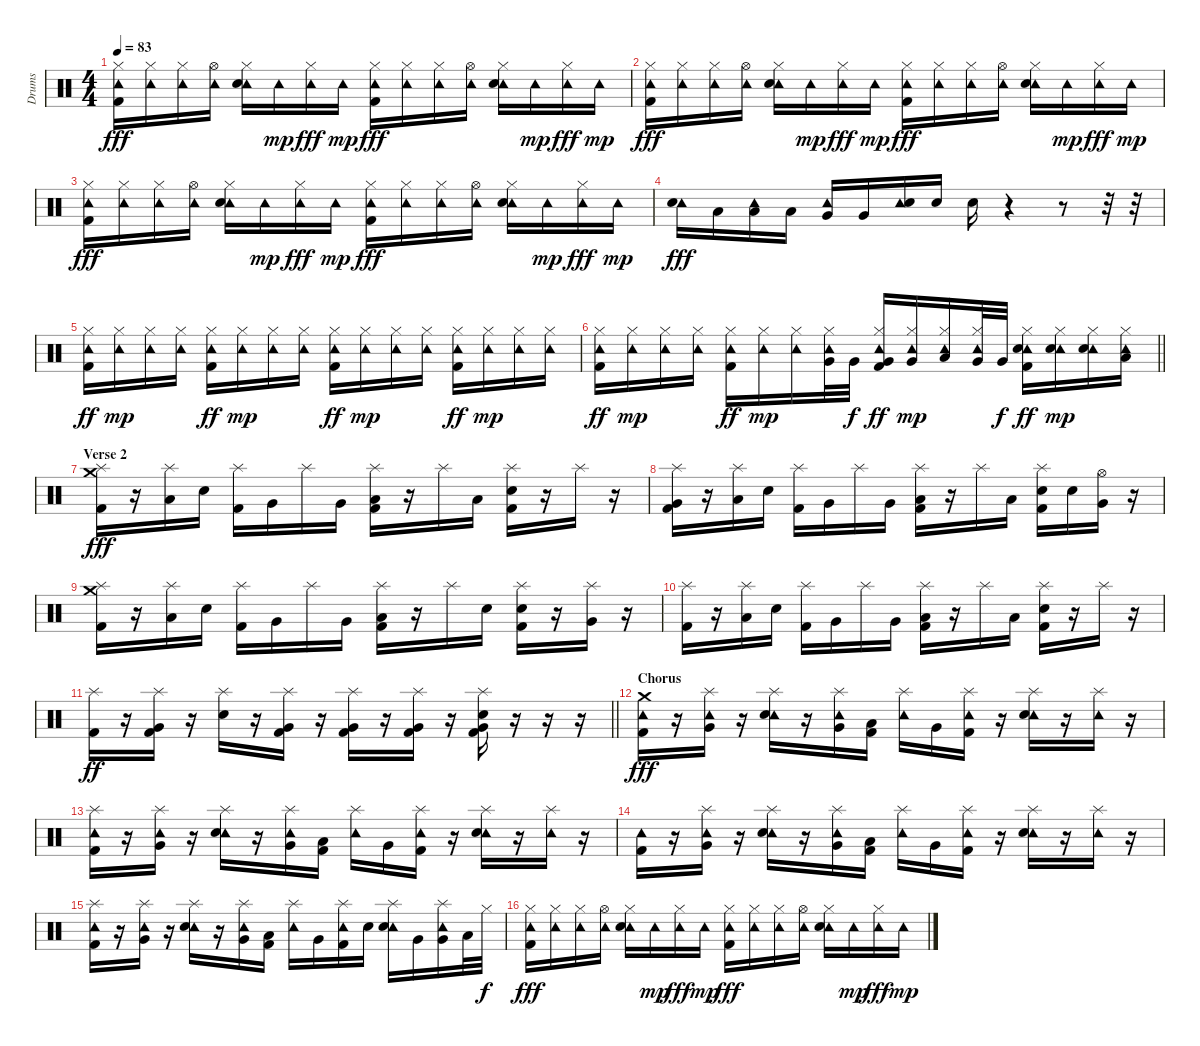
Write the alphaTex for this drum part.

\track ("Drums" "Drums") {instrument percussion}
\staff {score}
\articulation defaults
\ts (4 4)
\tempo 83
\clef neutral
\ks c
("Tambourine (hit)" "Hi-Hat (closed)" "Kick (hit) 2").16{dy fff} ("Tambourine (hit)" "Hi-Hat (closed)").16 ("Tambourine (hit)" "Hi-Hat (closed)").16 ("Tambourine (hit)" "Hi-Hat (open)").16 ("Tambourine (hit)" "Hi-Hat (closed)" "Snare (hit) 2").16 "Tambourine (hit)".16{dy mp} ("Tambourine (hit)" "Hi-Hat (closed)").16{dy fff} "Tambourine (hit)".16{dy mp} ("Tambourine (hit)" "Hi-Hat (closed)" "Kick (hit) 2").16{dy fff} ("Tambourine (hit)" "Hi-Hat (closed)").16 ("Tambourine (hit)" "Hi-Hat (closed)").16 ("Tambourine (hit)" "Hi-Hat (open)").16 ("Tambourine (hit)" "Hi-Hat (closed)" "Snare (hit) 2").16 "Tambourine (hit)".16{dy mp} ("Tambourine (hit)" "Hi-Hat (closed)").16{dy fff} "Tambourine (hit)".16{dy mp} |
("Tambourine (hit)" "Hi-Hat (closed)" "Kick (hit) 2").16{dy fff} ("Tambourine (hit)" "Hi-Hat (closed)").16 ("Tambourine (hit)" "Hi-Hat (closed)").16 ("Tambourine (hit)" "Hi-Hat (open)").16 ("Tambourine (hit)" "Hi-Hat (closed)" "Snare (hit) 2").16 "Tambourine (hit)".16{dy mp} ("Tambourine (hit)" "Hi-Hat (closed)").16{dy fff} "Tambourine (hit)".16{dy mp} ("Tambourine (hit)" "Hi-Hat (closed)" "Kick (hit) 2").16{dy fff} ("Tambourine (hit)" "Hi-Hat (closed)").16 ("Tambourine (hit)" "Hi-Hat (closed)").16 ("Tambourine (hit)" "Hi-Hat (open)").16 ("Tambourine (hit)" "Hi-Hat (closed)" "Snare (hit) 2").16 "Tambourine (hit)".16{dy mp} ("Tambourine (hit)" "Hi-Hat (closed)").16{dy fff} "Tambourine (hit)".16{dy mp} |
("Tambourine (hit)" "Hi-Hat (closed)" "Kick (hit) 2").16{dy fff} ("Tambourine (hit)" "Hi-Hat (closed)").16 ("Tambourine (hit)" "Hi-Hat (closed)").16 ("Tambourine (hit)" "Hi-Hat (open)").16 ("Tambourine (hit)" "Hi-Hat (closed)" "Snare (hit) 2").16 "Tambourine (hit)".16{dy mp} ("Tambourine (hit)" "Hi-Hat (closed)").16{dy fff} "Tambourine (hit)".16{dy mp} ("Tambourine (hit)" "Hi-Hat (closed)" "Kick (hit) 2").16{dy fff} ("Tambourine (hit)" "Hi-Hat (closed)").16 ("Tambourine (hit)" "Hi-Hat (closed)").16 ("Tambourine (hit)" "Hi-Hat (open)").16 ("Tambourine (hit)" "Hi-Hat (closed)" "Snare (hit) 2").16 "Tambourine (hit)".16{dy mp} ("Tambourine (hit)" "Hi-Hat (closed)").16{dy fff} "Tambourine (hit)".16{dy mp} |
("Tambourine (hit)" "Snare (hit) 2").16{dy fff} "Low Floor Tom (hit)".16 ("Tambourine (hit)" "Low Floor Tom (hit)").16 "Low Floor Tom (hit)".16 ("Tambourine (hit)" "Very Low Tom (hit)").16 "Very Low Tom (hit)".16 ("Tambourine (hit)" "Snare (hit) 2").16 "Snare (hit) 2".16 "Snare (hit) 2".16 r.4 r.8 r.32 r.32 |
("Hi-Hat (closed)" "Tambourine (hit)" "Kick (hit) 2").16{dy ff} ("Hi-Hat (closed)" "Tambourine (hit)").16{dy mp} ("Hi-Hat (closed)" "Tambourine (hit)").16 ("Hi-Hat (closed)" "Tambourine (hit)").16 ("Hi-Hat (closed)" "Tambourine (hit)" "Kick (hit) 2").16{dy ff} ("Hi-Hat (closed)" "Tambourine (hit)").16{dy mp} ("Hi-Hat (closed)" "Tambourine (hit)").16 ("Hi-Hat (closed)" "Tambourine (hit)").16 ("Hi-Hat (closed)" "Tambourine (hit)" "Kick (hit) 2").16{dy ff} ("Hi-Hat (closed)" "Tambourine (hit)").16{dy mp} ("Hi-Hat (closed)" "Tambourine (hit)").16 ("Hi-Hat (closed)" "Tambourine (hit)").16 ("Hi-Hat (closed)" "Tambourine (hit)" "Kick (hit) 2").16{dy ff} ("Hi-Hat (closed)" "Tambourine (hit)").16{dy mp} ("Hi-Hat (closed)" "Tambourine (hit)").16 ("Hi-Hat (closed)" "Tambourine (hit)").16 |
\barLineRight lightlight
("Hi-Hat (closed)" "Tambourine (hit)" "Kick (hit) 2").16{dy ff} ("Hi-Hat (closed)" "Tambourine (hit)").16{dy mp} ("Hi-Hat (closed)" "Tambourine (hit)").16 ("Hi-Hat (closed)" "Tambourine (hit)").16 ("Hi-Hat (closed)" "Tambourine (hit)" "Kick (hit) 2").16{dy ff} ("Hi-Hat (closed)" "Tambourine (hit)").16{dy mp} ("Hi-Hat (closed)" "Tambourine (hit)").16 ("Hi-Hat (closed)" "Tambourine (hit)" "Very Low Tom (hit)").32 "Very Low Tom (hit)".32{dy f} ("Hi-Hat (closed)" "Tambourine (hit)" "Very Low Tom (hit)" "Kick (hit) 2").16{dy ff} ("Hi-Hat (closed)" "Tambourine (hit)" "Very Low Tom (hit)").16{dy mp} ("Hi-Hat (closed)" "Tambourine (hit)" "Low Floor Tom (hit)").16 ("Hi-Hat (closed)" "Tambourine (hit)" "Very Low Tom (hit)").32 "Very Low Tom (hit)".32{dy f} ("Hi-Hat (closed)" "Tambourine (hit)" "Snare (hit) 2" "Kick (hit) 2").16{dy ff} ("Hi-Hat (closed)" "Tambourine (hit)" "Snare (hit) 2").16{dy mp} ("Hi-Hat (closed)" "Tambourine (hit)" "Snare (hit) 2").16 ("Hi-Hat (closed)" "Tambourine (hit)" "Low Floor Tom (hit)").16 |
\section ("" "Verse 2")
("Crash medium (hit)" "Splash (hit)" "Kick (hit) 2").16{dy fff} r.16 ("Splash (hit)" "Low Floor Tom (hit)").16 "Snare (hit) 2".16 ("Splash (hit)" "Kick (hit) 2").16 "Very Low Tom (hit)".16 "Splash (hit)".16 "Very Low Tom (hit)".16 ("Splash (hit)" "Low Floor Tom (hit)" "Kick (hit) 2").16 r.16 "Splash (hit)".16 "Low Floor Tom (hit)".16 ("Splash (hit)" "Snare (hit) 2" "Kick (hit) 2").16 r.16 "Splash (hit)".16 r.16 |
("Splash (hit)" "Very Low Tom (hit)" "Kick (hit) 2").16 r.16 ("Splash (hit)" "Low Floor Tom (hit)").16 "Snare (hit) 2".16 ("Splash (hit)" "Kick (hit) 2").16 "Very Low Tom (hit)".16 "Splash (hit)".16 "Very Low Tom (hit)".16 ("Splash (hit)" "Low Floor Tom (hit)" "Kick (hit) 2").16 r.16 "Splash (hit)".16 "Low Floor Tom (hit)".16 ("Splash (hit)" "Snare (hit) 2" "Kick (hit) 2").16 "Snare (hit) 2".16 ("Hi-Hat (open)" "Very Low Tom (hit)").16 r.16 |
("Crash medium (hit)" "Splash (hit)" "Kick (hit) 2").16 r.16 ("Splash (hit)" "Low Floor Tom (hit)").16 "Snare (hit) 2".16 ("Splash (hit)" "Kick (hit) 2").16 "Very Low Tom (hit)".16 "Splash (hit)".16 "Very Low Tom (hit)".16 ("Splash (hit)" "Low Floor Tom (hit)" "Kick (hit) 2").16 r.16 "Splash (hit)".16 "Snare (hit) 2".16 ("Splash (hit)" "Snare (hit) 2" "Kick (hit) 2").16 r.16 ("Splash (hit)" "Very Low Tom (hit)").16 r.16 |
("Splash (hit)" "Kick (hit) 2").16 r.16 ("Splash (hit)" "Low Floor Tom (hit)").16 "Snare (hit) 2".16 ("Splash (hit)" "Kick (hit) 2").16 "Very Low Tom (hit)".16 "Splash (hit)".16 "Very Low Tom (hit)".16 ("Splash (hit)" "Low Floor Tom (hit)" "Kick (hit) 2").16 r.16 "Splash (hit)".16 "Low Floor Tom (hit)".16 ("Splash (hit)" "Snare (hit) 2" "Kick (hit) 2").16 r.16 "Splash (hit)".16 r.16 |
\barLineRight lightlight
("Splash (hit)" "Kick (hit) 2").16{dy ff} r.16 ("Splash (hit)" "Very Low Tom (hit)" "Kick (hit) 2").16 r.16 ("Splash (hit)" "Snare (hit) 2").16 r.16 ("Splash (hit)" "Very Low Tom (hit)" "Kick (hit) 2").16 r.16 ("Splash (hit)" "Very Low Tom (hit)" "Kick (hit) 2").16 r.16 ("Splash (hit)" "Very Low Tom (hit)" "Kick (hit) 2").16 r.16 ("Splash (hit)" "Snare (hit) 2" "Very Low Tom (hit)" "Kick (hit) 2").16 r.16 r.16 r.16 |
\section ("" "Chorus")
("Crash medium (hit)" "Tambourine (hit)" "Kick (hit) 2").16{dy fff} r.16 ("Splash (hit)" "Tambourine (hit)" "Very Low Tom (hit)").16 r.16 ("Splash (hit)" "Tambourine (hit)" "Snare (hit) 2").16 r.16 ("Splash (hit)" "Tambourine (hit)" "Very Low Tom (hit)").16 ("Low Floor Tom (hit)" "Kick (hit) 2").16 ("Splash (hit)" "Tambourine (hit)").16 "Very Low Tom (hit)".16 ("Splash (hit)" "Tambourine (hit)" "Kick (hit) 2").16 r.16 ("Splash (hit)" "Tambourine (hit)" "Snare (hit) 2").16 r.16 ("Splash (hit)" "Tambourine (hit)").16 r.16 |
("Splash (hit)" "Tambourine (hit)" "Kick (hit) 2").16 r.16 ("Splash (hit)" "Tambourine (hit)" "Very Low Tom (hit)").16 r.16 ("Splash (hit)" "Tambourine (hit)" "Snare (hit) 2").16 r.16 ("Splash (hit)" "Tambourine (hit)" "Very Low Tom (hit)").16 ("Low Floor Tom (hit)" "Kick (hit) 2").16 ("Splash (hit)" "Tambourine (hit)").16 "Very Low Tom (hit)".16 ("Splash (hit)" "Tambourine (hit)" "Kick (hit) 2").16 r.16 ("Splash (hit)" "Tambourine (hit)" "Snare (hit) 2").16 r.16 ("Splash (hit)" "Tambourine (hit)").16 r.16 |
("Tambourine (hit)" "Kick (hit) 2").16 r.16 ("Splash (hit)" "Tambourine (hit)" "Very Low Tom (hit)").16 r.16 ("Splash (hit)" "Tambourine (hit)" "Snare (hit) 2").16 r.16 ("Splash (hit)" "Tambourine (hit)" "Very Low Tom (hit)").16 ("Low Floor Tom (hit)" "Kick (hit) 2").16 ("Splash (hit)" "Tambourine (hit)").16 "Very Low Tom (hit)".16 ("Splash (hit)" "Tambourine (hit)" "Kick (hit) 2").16 r.16 ("Splash (hit)" "Tambourine (hit)" "Snare (hit) 2").16 r.16 ("Splash (hit)" "Tambourine (hit)").16 r.16 |
("Splash (hit)" "Tambourine (hit)" "Kick (hit) 2").16 r.16 ("Splash (hit)" "Tambourine (hit)" "Very Low Tom (hit)").16 r.16 ("Splash (hit)" "Tambourine (hit)" "Snare (hit) 2").16 r.16 ("Splash (hit)" "Tambourine (hit)" "Very Low Tom (hit)").16 ("Low Floor Tom (hit)" "Kick (hit) 2").16 ("Splash (hit)" "Tambourine (hit)").16 "Very Low Tom (hit)".16 ("Splash (hit)" "Tambourine (hit)" "Kick (hit) 2").16 "Snare (hit) 2".16 ("Splash (hit)" "Tambourine (hit)" "Snare (hit) 2").16 "Very Low Tom (hit)".16 ("Splash (hit)" "Tambourine (hit)" "Very Low Tom (hit)").16 "Low Floor Tom (hit)".32 "Hi-Hat (closed)".32{dy f} |
("Tambourine (hit)" "Hi-Hat (closed)" "Kick (hit) 2").16{dy fff} ("Tambourine (hit)" "Hi-Hat (closed)").16 ("Tambourine (hit)" "Hi-Hat (closed)").16 ("Tambourine (hit)" "Hi-Hat (open)").16 ("Tambourine (hit)" "Hi-Hat (closed)" "Snare (hit) 2").16 "Tambourine (hit)".16{dy mp} ("Tambourine (hit)" "Hi-Hat (closed)").16{dy fff} "Tambourine (hit)".16{dy mp} ("Tambourine (hit)" "Hi-Hat (closed)" "Kick (hit) 2").16{dy fff} ("Tambourine (hit)" "Hi-Hat (closed)").16 ("Tambourine (hit)" "Hi-Hat (closed)").16 ("Tambourine (hit)" "Hi-Hat (open)").16 ("Tambourine (hit)" "Hi-Hat (closed)" "Snare (hit) 2").16 "Tambourine (hit)".16{dy mp} ("Tambourine (hit)" "Hi-Hat (closed)").16{dy fff} "Tambourine (hit)".16{dy mp}
